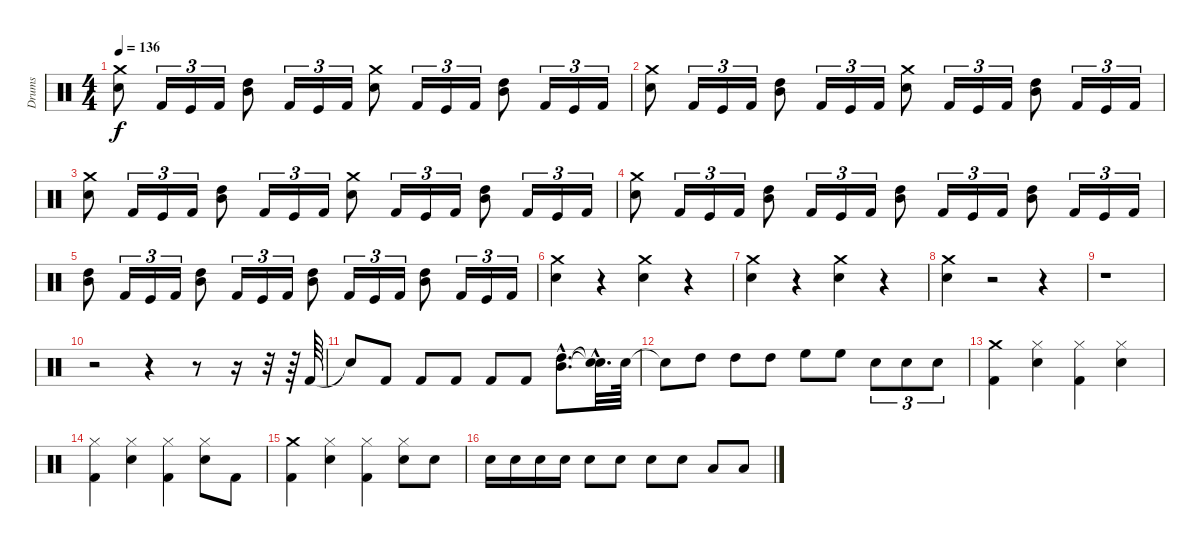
\track ("Drums" "Drums") {instrument percussion}
\staff {score}
\articulation defaults
\ts (4 4)
\tempo 136
\clef neutral
\ks c
("Crash medium (hit)" "Snare (hit) 2").8{dy f} "Kick (hit) 2".16{tu (3 2)} "Kick (hit)".16{tu (3 2)} "Kick (hit) 2".16{tu (3 2)} ("High Tom (hit)" "Mid Tom (hit)").8 "Kick (hit) 2".16{tu (3 2)} "Kick (hit)".16{tu (3 2)} "Kick (hit) 2".16{tu (3 2)} ("Crash medium (hit)" "Snare (hit) 2").8 "Kick (hit) 2".16{tu (3 2)} "Kick (hit)".16{tu (3 2)} "Kick (hit) 2".16{tu (3 2)} ("Mid Tom (hit)" "High Tom (hit)").8 "Kick (hit) 2".16{tu (3 2)} "Kick (hit)".16{tu (3 2)} "Kick (hit) 2".16{tu (3 2)} |
("Crash medium (hit)" "Snare (hit) 2").8 "Kick (hit) 2".16{tu (3 2)} "Kick (hit)".16{tu (3 2)} "Kick (hit) 2".16{tu (3 2)} ("High Tom (hit)" "Mid Tom (hit)").8 "Kick (hit) 2".16{tu (3 2)} "Kick (hit)".16{tu (3 2)} "Kick (hit) 2".16{tu (3 2)} ("Crash medium (hit)" "Snare (hit) 2").8 "Kick (hit) 2".16{tu (3 2)} "Kick (hit)".16{tu (3 2)} "Kick (hit) 2".16{tu (3 2)} ("Mid Tom (hit)" "High Tom (hit)").8 "Kick (hit) 2".16{tu (3 2)} "Kick (hit)".16{tu (3 2)} "Kick (hit) 2".16{tu (3 2)} |
("Crash medium (hit)" "Snare (hit) 2").8 "Kick (hit) 2".16{tu (3 2)} "Kick (hit)".16{tu (3 2)} "Kick (hit) 2".16{tu (3 2)} ("High Tom (hit)" "Mid Tom (hit)").8 "Kick (hit) 2".16{tu (3 2)} "Kick (hit)".16{tu (3 2)} "Kick (hit) 2".16{tu (3 2)} ("Crash medium (hit)" "Snare (hit) 2").8 "Kick (hit) 2".16{tu (3 2)} "Kick (hit)".16{tu (3 2)} "Kick (hit) 2".16{tu (3 2)} ("Mid Tom (hit)" "High Tom (hit)").8 "Kick (hit) 2".16{tu (3 2)} "Kick (hit)".16{tu (3 2)} "Kick (hit) 2".16{tu (3 2)} |
("Crash medium (hit)" "Snare (hit) 2").8 "Kick (hit) 2".16{tu (3 2)} "Kick (hit)".16{tu (3 2)} "Kick (hit) 2".16{tu (3 2)} ("High Tom (hit)" "Mid Tom (hit)").8 "Kick (hit) 2".16{tu (3 2)} "Kick (hit)".16{tu (3 2)} "Kick (hit) 2".16{tu (3 2)} ("High Tom (hit)" "Mid Tom (hit)").8 "Kick (hit) 2".16{tu (3 2)} "Kick (hit)".16{tu (3 2)} "Kick (hit) 2".16{tu (3 2)} ("Mid Tom (hit)" "High Tom (hit)").8 "Kick (hit) 2".16{tu (3 2)} "Kick (hit)".16{tu (3 2)} "Kick (hit) 2".16{tu (3 2)} |
("Mid Tom (hit)" "High Tom (hit)").8 "Kick (hit) 2".16{tu (3 2)} "Kick (hit)".16{tu (3 2)} "Kick (hit) 2".16{tu (3 2)} ("High Tom (hit)" "Mid Tom (hit)").8 "Kick (hit) 2".16{tu (3 2)} "Kick (hit)".16{tu (3 2)} "Kick (hit) 2".16{tu (3 2)} ("Mid Tom (hit)" "High Tom (hit)").8 "Kick (hit) 2".16{tu (3 2)} "Kick (hit)".16{tu (3 2)} "Kick (hit) 2".16{tu (3 2)} ("Mid Tom (hit)" "High Tom (hit)").8 "Kick (hit) 2".16{tu (3 2)} "Kick (hit)".16{tu (3 2)} "Kick (hit) 2".16{tu (3 2)} |
("Snare (hit) 2" "Crash medium (hit)").4 r.4 ("Crash medium (hit)" "Snare (hit) 2").4 r.4 |
("Crash medium (hit)" "Snare (hit) 2").4 r.4 ("Crash medium (hit)" "Snare (hit) 2").4 r.4 |
("Crash medium (hit)" "Snare (hit) 2").4 r.2 r.4 |
r.1 |
r.2 r.4 r.8 r.16 r.32 r.64 "Kick (hit) 2".64 |
"Snare (hit)"{t}.8 "Kick (hit) 2".8 "Kick (hit) 2".8 "Kick (hit) 2".8 "Kick (hit) 2".8 "Kick (hit) 2".8 ("Mid Tom (hit)"{hac} "High Tom (hit)"{hac}).8{d} ("Snare (hit)"{hac t} "Snare (hit)"{hac t}).32{d} "Snare (hit) 2".64 |
"Snare (hit)"{t}.8 "High Tom (hit)".8 "High Tom (hit)".8 "High Tom (hit)".8 "High Floor Tom (hit)".8 "High Floor Tom (hit)".8 "Snare (hit) 2".8{tu (3 2)} "Snare (hit) 2".8{tu (3 2)} "Snare (hit) 2".8{tu (3 2)} |
("Kick (hit) 2" "Crash medium (hit)").4 ("Hi-Hat (closed)" "Snare (hit) 2").4 ("Hi-Hat (closed)" "Kick (hit) 2").4 ("Snare (hit) 2" "Hi-Hat (closed)").4 |
("Hi-Hat (closed)" "Kick (hit) 2").4 ("Snare (hit) 2" "Hi-Hat (closed)").4 ("Hi-Hat (closed)" "Kick (hit) 2").4 ("Snare (hit) 2" "Hi-Hat (closed)").8 "Kick (hit) 2".8 |
("Kick (hit) 2" "Crash medium (hit)").4 ("Hi-Hat (closed)" "Snare (hit) 2").4 ("Hi-Hat (closed)" "Kick (hit) 2").4 ("Snare (hit) 2" "Hi-Hat (closed)").8 "Snare (hit) 2".8 |
"Snare (hit) 2".16 "Snare (hit) 2".16 "Snare (hit) 2".16 "Snare (hit) 2".16 "Snare (hit) 2".8 "Snare (hit) 2".8 "Snare (hit) 2".8 "Snare (hit) 2".8 "Low Tom (hit)".8 "Low Tom (hit)".8
